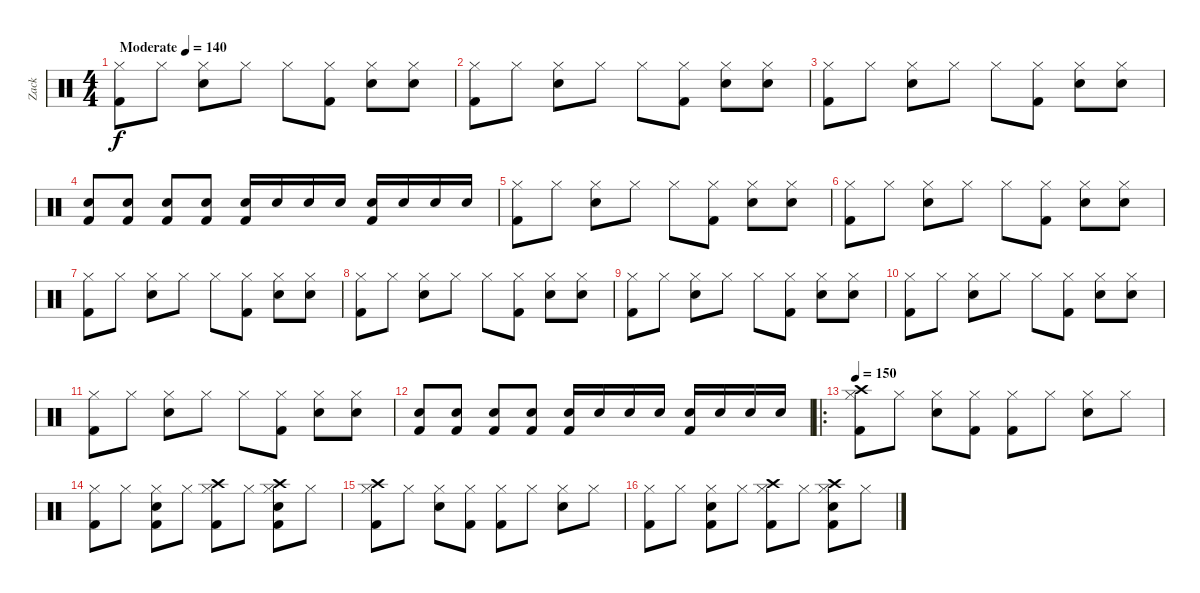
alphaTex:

\track ("Zack" "Zack") {instrument percussion}
\staff {score}
\articulation defaults
\ts (4 4)
\tempo (140 "Moderate")
\clef neutral
\ks c
("Hi-Hat (closed)" "Kick (hit) 2").8{dy f} "Hi-Hat (closed)".8 ("Hi-Hat (closed)" "Snare (hit) 2").8 "Hi-Hat (closed)".8 "Hi-Hat (closed)".8 ("Hi-Hat (closed)" "Kick (hit) 2").8 ("Hi-Hat (closed)" "Snare (hit) 2").8 ("Hi-Hat (closed)" "Snare (hit) 2").8 |
("Hi-Hat (closed)" "Kick (hit) 2").8 "Hi-Hat (closed)".8 ("Hi-Hat (closed)" "Snare (hit) 2").8 "Hi-Hat (closed)".8 "Hi-Hat (closed)".8 ("Hi-Hat (closed)" "Kick (hit) 2").8 ("Hi-Hat (closed)" "Snare (hit) 2").8 ("Hi-Hat (closed)" "Snare (hit) 2").8 |
("Hi-Hat (closed)" "Kick (hit) 2").8 "Hi-Hat (closed)".8 ("Hi-Hat (closed)" "Snare (hit) 2").8 "Hi-Hat (closed)".8 "Hi-Hat (closed)".8 ("Hi-Hat (closed)" "Kick (hit) 2").8 ("Hi-Hat (closed)" "Snare (hit) 2").8 ("Hi-Hat (closed)" "Snare (hit) 2").8 |
("Snare (hit) 2" "Kick (hit) 2").8 ("Snare (hit) 2" "Kick (hit) 2").8 ("Snare (hit) 2" "Kick (hit) 2").8 ("Snare (hit) 2" "Kick (hit) 2").8 ("Snare (hit) 2" "Kick (hit) 2").16 "Snare (hit) 2".16 "Snare (hit) 2".16 "Snare (hit) 2".16 ("Snare (hit) 2" "Kick (hit) 2").16 "Snare (hit) 2".16 "Snare (hit) 2".16 "Snare (hit) 2".16 |
("Hi-Hat (closed)" "Kick (hit) 2").8 "Hi-Hat (closed)".8 ("Hi-Hat (closed)" "Snare (hit) 2").8 "Hi-Hat (closed)".8 "Hi-Hat (closed)".8 ("Hi-Hat (closed)" "Kick (hit) 2").8 ("Hi-Hat (closed)" "Snare (hit) 2").8 ("Hi-Hat (closed)" "Snare (hit) 2").8 |
("Hi-Hat (closed)" "Kick (hit) 2").8 "Hi-Hat (closed)".8 ("Hi-Hat (closed)" "Snare (hit) 2").8 "Hi-Hat (closed)".8 "Hi-Hat (closed)".8 ("Hi-Hat (closed)" "Kick (hit) 2").8 ("Hi-Hat (closed)" "Snare (hit) 2").8 ("Hi-Hat (closed)" "Snare (hit) 2").8 |
("Hi-Hat (closed)" "Kick (hit) 2").8 "Hi-Hat (closed)".8 ("Hi-Hat (closed)" "Snare (hit) 2").8 "Hi-Hat (closed)".8 "Hi-Hat (closed)".8 ("Hi-Hat (closed)" "Kick (hit) 2").8 ("Hi-Hat (closed)" "Snare (hit) 2").8 ("Hi-Hat (closed)" "Snare (hit) 2").8 |
("Hi-Hat (closed)" "Kick (hit) 2").8 "Hi-Hat (closed)".8 ("Hi-Hat (closed)" "Snare (hit) 2").8 "Hi-Hat (closed)".8 "Hi-Hat (closed)".8 ("Hi-Hat (closed)" "Kick (hit) 2").8 ("Hi-Hat (closed)" "Snare (hit) 2").8 ("Hi-Hat (closed)" "Snare (hit) 2").8 |
("Hi-Hat (closed)" "Kick (hit) 2").8 "Hi-Hat (closed)".8 ("Hi-Hat (closed)" "Snare (hit) 2").8 "Hi-Hat (closed)".8 "Hi-Hat (closed)".8 ("Hi-Hat (closed)" "Kick (hit) 2").8 ("Hi-Hat (closed)" "Snare (hit) 2").8 ("Hi-Hat (closed)" "Snare (hit) 2").8 |
("Hi-Hat (closed)" "Kick (hit) 2").8 "Hi-Hat (closed)".8 ("Hi-Hat (closed)" "Snare (hit) 2").8 "Hi-Hat (closed)".8 "Hi-Hat (closed)".8 ("Hi-Hat (closed)" "Kick (hit) 2").8 ("Hi-Hat (closed)" "Snare (hit) 2").8 ("Hi-Hat (closed)" "Snare (hit) 2").8 |
("Hi-Hat (closed)" "Kick (hit) 2").8 "Hi-Hat (closed)".8 ("Hi-Hat (closed)" "Snare (hit) 2").8 "Hi-Hat (closed)".8 "Hi-Hat (closed)".8 ("Hi-Hat (closed)" "Kick (hit) 2").8 ("Hi-Hat (closed)" "Snare (hit) 2").8 ("Hi-Hat (closed)" "Snare (hit) 2").8 |
("Snare (hit) 2" "Kick (hit) 2").8 ("Snare (hit) 2" "Kick (hit) 2").8 ("Snare (hit) 2" "Kick (hit) 2").8 ("Snare (hit) 2" "Kick (hit) 2").8 ("Snare (hit) 2" "Kick (hit) 2").16 "Snare (hit) 2".16 "Snare (hit) 2".16 "Snare (hit) 2".16 ("Snare (hit) 2" "Kick (hit) 2").16 "Snare (hit) 2".16 "Snare (hit) 2".16 "Snare (hit) 2".16 |
\ro
\tempo 150
("Hi-Hat (closed)" "Crash high (hit)" "Kick (hit) 2").8 "Hi-Hat (closed)".8 ("Hi-Hat (closed)" "Snare (hit) 2").8 ("Hi-Hat (closed)" "Kick (hit) 2").8 ("Hi-Hat (closed)" "Kick (hit) 2").8 "Hi-Hat (closed)".8 ("Hi-Hat (closed)" "Snare (hit) 2").8 "Hi-Hat (closed)".8 |
("Hi-Hat (closed)" "Kick (hit) 2").8 "Hi-Hat (closed)".8 ("Hi-Hat (closed)" "Snare (hit) 2" "Kick (hit) 2").8 "Hi-Hat (closed)".8 ("Hi-Hat (closed)" "Crash high (hit)" "Kick (hit) 2").8 "Hi-Hat (closed)".8 ("Hi-Hat (closed)" "Crash high (hit)" "Snare (hit) 2" "Kick (hit) 2").8 "Hi-Hat (closed)".8 |
("Hi-Hat (closed)" "Crash high (hit)" "Kick (hit) 2").8 "Hi-Hat (closed)".8 ("Hi-Hat (closed)" "Snare (hit) 2").8 ("Hi-Hat (closed)" "Kick (hit) 2").8 ("Hi-Hat (closed)" "Kick (hit) 2").8 "Hi-Hat (closed)".8 ("Hi-Hat (closed)" "Snare (hit) 2").8 "Hi-Hat (closed)".8 |
("Hi-Hat (closed)" "Kick (hit) 2").8 "Hi-Hat (closed)".8 ("Hi-Hat (closed)" "Snare (hit) 2" "Kick (hit) 2").8 "Hi-Hat (closed)".8 ("Hi-Hat (closed)" "Crash high (hit)" "Kick (hit) 2").8 "Hi-Hat (closed)".8 ("Hi-Hat (closed)" "Crash high (hit)" "Snare (hit) 2" "Kick (hit) 2").8 "Hi-Hat (closed)".8
